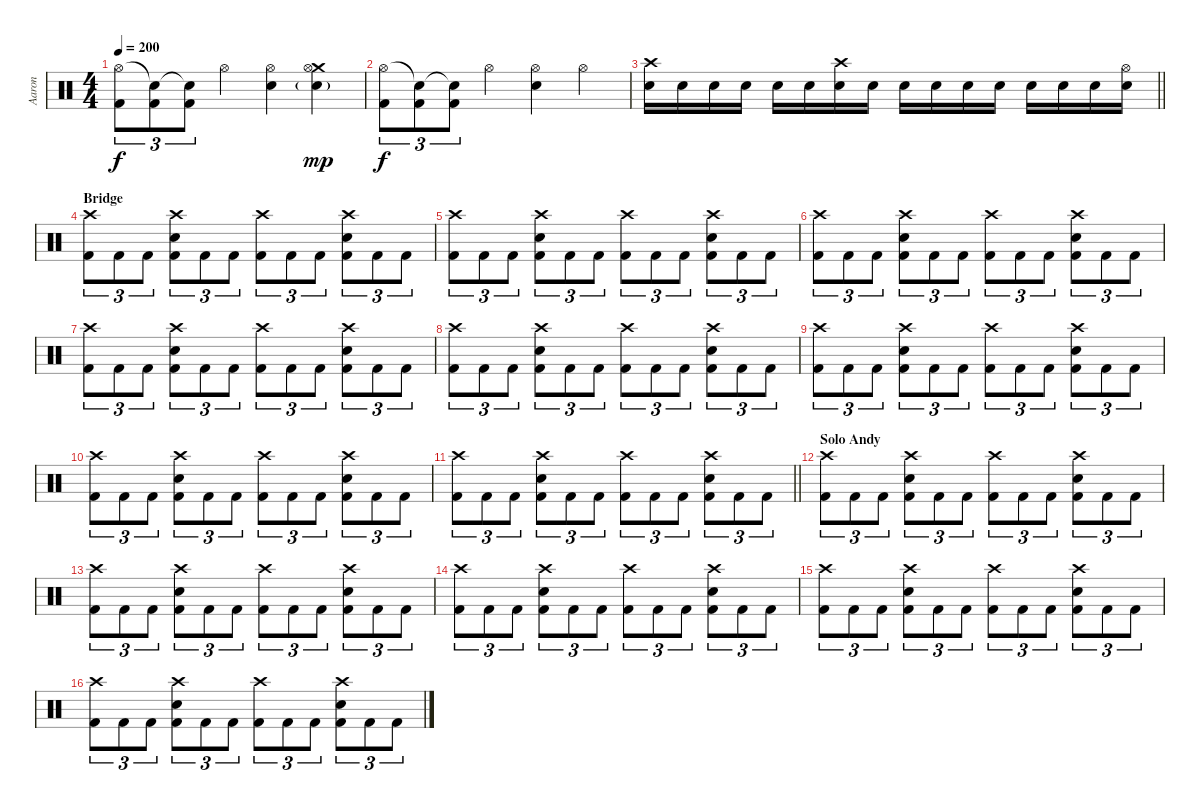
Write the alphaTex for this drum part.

\track ("Aaron" "Aaron") {instrument percussion}
\staff {score}
\articulation defaults
\ts (4 4)
\tempo 200
\clef neutral
\ks c
("Hi-Hat (open)" "Kick (hit) 2").8{tu (3 2) dy f} ("Snare (hit)"{t} "Kick (hit) 2").8{tu (3 2)} ("Snare (hit)"{t} "Kick (hit) 2").8{tu (3 2)} "Hi-Hat (open)".4 ("Hi-Hat (open)" "Snare (hit) 2").4 ("Crash medium (hit)" "Snare (hit) 2"{g} "Hi-Hat (open)").4{dy mp} |
("Hi-Hat (open)" "Kick (hit) 2").8{tu (3 2) dy f} ("Snare (hit)"{t} "Kick (hit) 2").8{tu (3 2)} ("Snare (hit)"{t} "Kick (hit) 2").8{tu (3 2)} "Hi-Hat (open)".4 ("Hi-Hat (open)" "Snare (hit) 2").4 "Hi-Hat (open)".4 |
\barLineRight lightlight
("Crash high (hit)" "Snare (hit) 2").16 "Snare (hit) 2".16 "Snare (hit) 2".16 "Snare (hit) 2".16 "Snare (hit) 2".16 "Snare (hit) 2".16 ("Crash high (hit)" "Snare (hit) 2").16 "Snare (hit) 2".16 "Snare (hit) 2".16 "Snare (hit) 2".16 "Snare (hit) 2".16 "Snare (hit) 2".16 "Snare (hit) 2".16 "Snare (hit) 2".16 "Snare (hit) 2".16 ("Hi-Hat (open)" "Snare (hit) 2").16 |
\section ("" "Bridge")
("Crash high (hit)" "Kick (hit) 2").8{tu (3 2)} "Kick (hit) 2".8{tu (3 2)} "Kick (hit) 2".8{tu (3 2)} ("Crash high (hit)" "Snare (hit) 2" "Kick (hit) 2").8{tu (3 2)} "Kick (hit) 2".8{tu (3 2)} "Kick (hit) 2".8{tu (3 2)} ("Crash high (hit)" "Kick (hit) 2").8{tu (3 2)} "Kick (hit) 2".8{tu (3 2)} "Kick (hit) 2".8{tu (3 2)} ("Crash high (hit)" "Snare (hit) 2" "Kick (hit) 2").8{tu (3 2)} "Kick (hit) 2".8{tu (3 2)} "Kick (hit) 2".8{tu (3 2)} |
("Crash high (hit)" "Kick (hit) 2").8{tu (3 2)} "Kick (hit) 2".8{tu (3 2)} "Kick (hit) 2".8{tu (3 2)} ("Crash high (hit)" "Snare (hit) 2" "Kick (hit) 2").8{tu (3 2)} "Kick (hit) 2".8{tu (3 2)} "Kick (hit) 2".8{tu (3 2)} ("Crash high (hit)" "Kick (hit) 2").8{tu (3 2)} "Kick (hit) 2".8{tu (3 2)} "Kick (hit) 2".8{tu (3 2)} ("Crash high (hit)" "Snare (hit) 2" "Kick (hit) 2").8{tu (3 2)} "Kick (hit) 2".8{tu (3 2)} "Kick (hit) 2".8{tu (3 2)} |
("Crash high (hit)" "Kick (hit) 2").8{tu (3 2)} "Kick (hit) 2".8{tu (3 2)} "Kick (hit) 2".8{tu (3 2)} ("Crash high (hit)" "Snare (hit) 2" "Kick (hit) 2").8{tu (3 2)} "Kick (hit) 2".8{tu (3 2)} "Kick (hit) 2".8{tu (3 2)} ("Crash high (hit)" "Kick (hit) 2").8{tu (3 2)} "Kick (hit) 2".8{tu (3 2)} "Kick (hit) 2".8{tu (3 2)} ("Crash high (hit)" "Snare (hit) 2" "Kick (hit) 2").8{tu (3 2)} "Kick (hit) 2".8{tu (3 2)} "Kick (hit) 2".8{tu (3 2)} |
("Crash high (hit)" "Kick (hit) 2").8{tu (3 2)} "Kick (hit) 2".8{tu (3 2)} "Kick (hit) 2".8{tu (3 2)} ("Crash high (hit)" "Snare (hit) 2" "Kick (hit) 2").8{tu (3 2)} "Kick (hit) 2".8{tu (3 2)} "Kick (hit) 2".8{tu (3 2)} ("Crash high (hit)" "Kick (hit) 2").8{tu (3 2)} "Kick (hit) 2".8{tu (3 2)} "Kick (hit) 2".8{tu (3 2)} ("Crash high (hit)" "Snare (hit) 2" "Kick (hit) 2").8{tu (3 2)} "Kick (hit) 2".8{tu (3 2)} "Kick (hit) 2".8{tu (3 2)} |
("Crash high (hit)" "Kick (hit) 2").8{tu (3 2)} "Kick (hit) 2".8{tu (3 2)} "Kick (hit) 2".8{tu (3 2)} ("Crash high (hit)" "Snare (hit) 2" "Kick (hit) 2").8{tu (3 2)} "Kick (hit) 2".8{tu (3 2)} "Kick (hit) 2".8{tu (3 2)} ("Crash high (hit)" "Kick (hit) 2").8{tu (3 2)} "Kick (hit) 2".8{tu (3 2)} "Kick (hit) 2".8{tu (3 2)} ("Crash high (hit)" "Snare (hit) 2" "Kick (hit) 2").8{tu (3 2)} "Kick (hit) 2".8{tu (3 2)} "Kick (hit) 2".8{tu (3 2)} |
("Crash high (hit)" "Kick (hit) 2").8{tu (3 2)} "Kick (hit) 2".8{tu (3 2)} "Kick (hit) 2".8{tu (3 2)} ("Crash high (hit)" "Snare (hit) 2" "Kick (hit) 2").8{tu (3 2)} "Kick (hit) 2".8{tu (3 2)} "Kick (hit) 2".8{tu (3 2)} ("Crash high (hit)" "Kick (hit) 2").8{tu (3 2)} "Kick (hit) 2".8{tu (3 2)} "Kick (hit) 2".8{tu (3 2)} ("Crash high (hit)" "Snare (hit) 2" "Kick (hit) 2").8{tu (3 2)} "Kick (hit) 2".8{tu (3 2)} "Kick (hit) 2".8{tu (3 2)} |
("Crash high (hit)" "Kick (hit) 2").8{tu (3 2)} "Kick (hit) 2".8{tu (3 2)} "Kick (hit) 2".8{tu (3 2)} ("Crash high (hit)" "Snare (hit) 2" "Kick (hit) 2").8{tu (3 2)} "Kick (hit) 2".8{tu (3 2)} "Kick (hit) 2".8{tu (3 2)} ("Crash high (hit)" "Kick (hit) 2").8{tu (3 2)} "Kick (hit) 2".8{tu (3 2)} "Kick (hit) 2".8{tu (3 2)} ("Crash high (hit)" "Snare (hit) 2" "Kick (hit) 2").8{tu (3 2)} "Kick (hit) 2".8{tu (3 2)} "Kick (hit) 2".8{tu (3 2)} |
\barLineRight lightlight
("Crash high (hit)" "Kick (hit) 2").8{tu (3 2)} "Kick (hit) 2".8{tu (3 2)} "Kick (hit) 2".8{tu (3 2)} ("Crash high (hit)" "Snare (hit) 2" "Kick (hit) 2").8{tu (3 2)} "Kick (hit) 2".8{tu (3 2)} "Kick (hit) 2".8{tu (3 2)} ("Crash high (hit)" "Kick (hit) 2").8{tu (3 2)} "Kick (hit) 2".8{tu (3 2)} "Kick (hit) 2".8{tu (3 2)} ("Crash high (hit)" "Snare (hit) 2" "Kick (hit) 2").8{tu (3 2)} "Kick (hit) 2".8{tu (3 2)} "Kick (hit) 2".8{tu (3 2)} |
\section ("" "Solo Andy")
("Crash high (hit)" "Kick (hit) 2").8{tu (3 2)} "Kick (hit) 2".8{tu (3 2)} "Kick (hit) 2".8{tu (3 2)} ("Crash high (hit)" "Snare (hit) 2" "Kick (hit) 2").8{tu (3 2)} "Kick (hit) 2".8{tu (3 2)} "Kick (hit) 2".8{tu (3 2)} ("Crash high (hit)" "Kick (hit) 2").8{tu (3 2)} "Kick (hit) 2".8{tu (3 2)} "Kick (hit) 2".8{tu (3 2)} ("Crash high (hit)" "Snare (hit) 2" "Kick (hit) 2").8{tu (3 2)} "Kick (hit) 2".8{tu (3 2)} "Kick (hit) 2".8{tu (3 2)} |
("Crash high (hit)" "Kick (hit) 2").8{tu (3 2)} "Kick (hit) 2".8{tu (3 2)} "Kick (hit) 2".8{tu (3 2)} ("Crash high (hit)" "Snare (hit) 2" "Kick (hit) 2").8{tu (3 2)} "Kick (hit) 2".8{tu (3 2)} "Kick (hit) 2".8{tu (3 2)} ("Crash high (hit)" "Kick (hit) 2").8{tu (3 2)} "Kick (hit) 2".8{tu (3 2)} "Kick (hit) 2".8{tu (3 2)} ("Crash high (hit)" "Snare (hit) 2" "Kick (hit) 2").8{tu (3 2)} "Kick (hit) 2".8{tu (3 2)} "Kick (hit) 2".8{tu (3 2)} |
("Crash high (hit)" "Kick (hit) 2").8{tu (3 2)} "Kick (hit) 2".8{tu (3 2)} "Kick (hit) 2".8{tu (3 2)} ("Crash high (hit)" "Snare (hit) 2" "Kick (hit) 2").8{tu (3 2)} "Kick (hit) 2".8{tu (3 2)} "Kick (hit) 2".8{tu (3 2)} ("Crash high (hit)" "Kick (hit) 2").8{tu (3 2)} "Kick (hit) 2".8{tu (3 2)} "Kick (hit) 2".8{tu (3 2)} ("Crash high (hit)" "Snare (hit) 2" "Kick (hit) 2").8{tu (3 2)} "Kick (hit) 2".8{tu (3 2)} "Kick (hit) 2".8{tu (3 2)} |
("Crash high (hit)" "Kick (hit) 2").8{tu (3 2)} "Kick (hit) 2".8{tu (3 2)} "Kick (hit) 2".8{tu (3 2)} ("Crash high (hit)" "Snare (hit) 2" "Kick (hit) 2").8{tu (3 2)} "Kick (hit) 2".8{tu (3 2)} "Kick (hit) 2".8{tu (3 2)} ("Crash high (hit)" "Kick (hit) 2").8{tu (3 2)} "Kick (hit) 2".8{tu (3 2)} "Kick (hit) 2".8{tu (3 2)} ("Crash high (hit)" "Snare (hit) 2" "Kick (hit) 2").8{tu (3 2)} "Kick (hit) 2".8{tu (3 2)} "Kick (hit) 2".8{tu (3 2)} |
("Crash high (hit)" "Kick (hit) 2").8{tu (3 2)} "Kick (hit) 2".8{tu (3 2)} "Kick (hit) 2".8{tu (3 2)} ("Crash high (hit)" "Snare (hit) 2" "Kick (hit) 2").8{tu (3 2)} "Kick (hit) 2".8{tu (3 2)} "Kick (hit) 2".8{tu (3 2)} ("Crash high (hit)" "Kick (hit) 2").8{tu (3 2)} "Kick (hit) 2".8{tu (3 2)} "Kick (hit) 2".8{tu (3 2)} ("Crash high (hit)" "Snare (hit) 2" "Kick (hit) 2").8{tu (3 2)} "Kick (hit) 2".8{tu (3 2)} "Kick (hit) 2".8{tu (3 2)}
